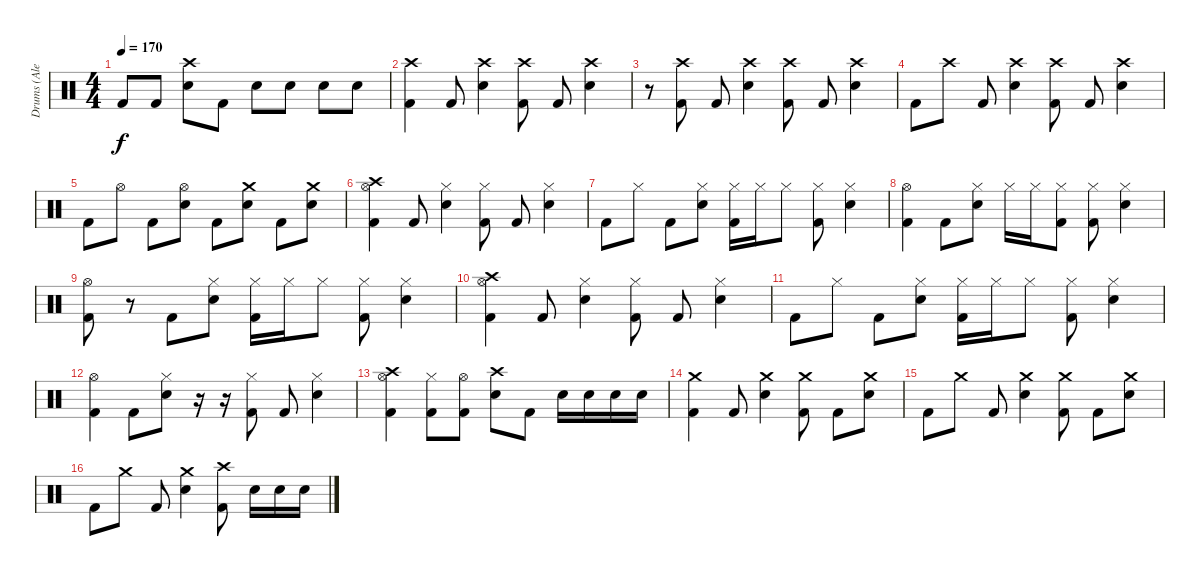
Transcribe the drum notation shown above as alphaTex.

\track ("Drums (Alex Shelnutt)" "Drums (Ale") {instrument percussion}
\staff {score}
\articulation defaults
\ts (4 4)
\tempo 170
\clef neutral
\ks c "Kick (hit) 2".8{dy f} "Kick (hit) 2".8
("Crash high (hit)" "Electric Snare (hit)").8 "Kick (hit) 2".8 "Electric Snare (hit)".8 "Electric Snare (hit)".8 "Electric Snare (hit)".8 "Electric Snare (hit)".8 |
("Crash high (hit)" "Kick (hit) 2").4 "Kick (hit) 2".8 ("Crash high (hit)" "Electric Snare (hit)").4 ("Crash high (hit)" "Kick (hit) 2").8 "Kick (hit) 2".8 ("Crash high (hit)" "Electric Snare (hit)").4 |
r.8 ("Crash high (hit)" "Kick (hit) 2").8 "Kick (hit) 2".8 ("Crash high (hit)" "Electric Snare (hit)").4 ("Crash high (hit)" "Kick (hit) 2").8 "Kick (hit) 2".8 ("Crash high (hit)" "Electric Snare (hit)").4 |
"Kick (hit) 2".8 "Crash high (hit)".8 "Kick (hit) 2".8 ("Crash high (hit)" "Electric Snare (hit)").4 ("Crash high (hit)" "Kick (hit) 2").8 "Kick (hit) 2".8 ("Crash high (hit)" "Electric Snare (hit)").4 |
"Kick (hit) 2".8 "Hi-Hat (open)".8 "Kick (hit) 2".8 ("Hi-Hat (open)" "Electric Snare (hit)").8 "Kick (hit) 2".8 ("Crash medium (hit)" "Electric Snare (hit)").8 "Kick (hit) 2".8 ("Crash medium (hit)" "Electric Snare (hit)").8 |
("Crash high (hit)" "Hi-Hat (open)" "Kick (hit) 2").4 "Kick (hit) 2".8 ("Hi-Hat (closed)" "Electric Snare (hit)").4 ("Hi-Hat (closed)" "Kick (hit) 2").8 "Kick (hit) 2".8 ("Hi-Hat (closed)" "Electric Snare (hit)").4 |
"Kick (hit) 2".8 "Hi-Hat (closed)".8 "Kick (hit) 2".8 ("Hi-Hat (closed)" "Electric Snare (hit)").8 ("Hi-Hat (closed)" "Kick (hit) 2").16 "Hi-Hat (closed)".16 "Hi-Hat (closed)".8 ("Hi-Hat (closed)" "Kick (hit) 2").8 ("Hi-Hat (closed)" "Electric Snare (hit)").4 |
("Hi-Hat (open)" "Kick (hit) 2").4 "Kick (hit) 2".8 ("Hi-Hat (closed)" "Electric Snare (hit)").8 "Hi-Hat (closed)".16 "Hi-Hat (closed)".16 ("Hi-Hat (closed)" "Kick (hit) 2").8 ("Hi-Hat (closed)" "Kick (hit) 2").8 ("Hi-Hat (closed)" "Electric Snare (hit)").4 |
("Hi-Hat (open)" "Kick (hit) 2").8 r.8 "Kick (hit) 2".8 ("Hi-Hat (closed)" "Electric Snare (hit)").8 ("Hi-Hat (closed)" "Kick (hit) 2").16 "Hi-Hat (closed)".16 "Hi-Hat (closed)".8 ("Hi-Hat (closed)" "Kick (hit) 2").8 ("Hi-Hat (closed)" "Electric Snare (hit)").4 |
("Crash high (hit)" "Hi-Hat (open)" "Kick (hit) 2").4 "Kick (hit) 2".8 ("Hi-Hat (closed)" "Electric Snare (hit)").4 ("Hi-Hat (closed)" "Kick (hit) 2").8 "Kick (hit) 2".8 ("Hi-Hat (closed)" "Electric Snare (hit)").4 |
"Kick (hit) 2".8 "Hi-Hat (closed)".8 "Kick (hit) 2".8 ("Hi-Hat (closed)" "Electric Snare (hit)").8 ("Hi-Hat (closed)" "Kick (hit) 2").16 "Hi-Hat (closed)".16 "Hi-Hat (closed)".8 ("Hi-Hat (closed)" "Kick (hit) 2").8 ("Hi-Hat (closed)" "Electric Snare (hit)").4 |
("Hi-Hat (open)" "Kick (hit) 2").4 "Kick (hit) 2".8 ("Hi-Hat (closed)" "Electric Snare (hit)").8 r.16 r.16 ("Hi-Hat (closed)" "Kick (hit) 2").8 "Kick (hit) 2".8 ("Hi-Hat (closed)" "Electric Snare (hit)").4 |
("Crash high (hit)" "Hi-Hat (open)" "Kick (hit) 2").4 ("Hi-Hat (closed)" "Kick (hit) 2").8 ("Hi-Hat (open)" "Kick (hit) 2").8 ("Crash high (hit)" "Electric Snare (hit)").8 "Kick (hit) 2".8 "Electric Snare (hit)".16 "Electric Snare (hit)".16 "Electric Snare (hit)".16 "Electric Snare (hit)".16 |
("Crash medium (hit)" "Kick (hit) 2").4 "Kick (hit) 2".8 ("Crash medium (hit)" "Electric Snare (hit)").4 ("Crash medium (hit)" "Kick (hit) 2").8 "Kick (hit) 2".8 ("Crash medium (hit)" "Electric Snare (hit)").8 |
"Kick (hit) 2".8 "Crash medium (hit)".8 "Kick (hit) 2".8 ("Crash medium (hit)" "Electric Snare (hit)").4 ("Crash medium (hit)" "Kick (hit) 2").8 "Kick (hit) 2".8 ("Crash medium (hit)" "Electric Snare (hit)").8 |
"Kick (hit) 2".8 "Crash medium (hit)".8 "Kick (hit) 2".8 ("Crash medium (hit)" "Electric Snare (hit)").4 ("Crash high (hit)" "Kick (hit) 2").8 "Electric Snare (hit)".16 "Electric Snare (hit)".16 "Electric Snare (hit)".16
